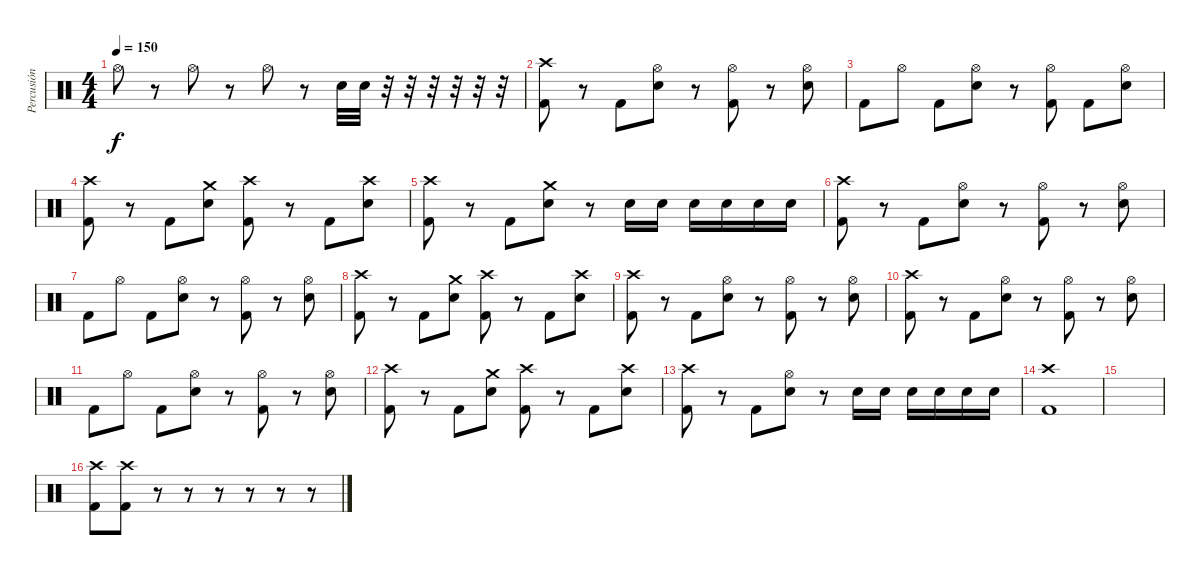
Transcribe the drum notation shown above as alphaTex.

\track ("Percusión" "Percusión") {instrument percussion}
\staff {score}
\articulation defaults
\ts (4 4)
\tempo 150
\clef neutral
\ks c "Hi-Hat (open)".8{dy f}
r.8 "Hi-Hat (open)".8 r.8 "Hi-Hat (open)".8 r.8 "Electric Snare (hit)".32 "Electric Snare (hit)".32 r.32 r.32 r.32 r.32 r.32 r.32 |
("Crash high (hit)" "Kick (hit) 2").8 r.8 "Kick (hit) 2".8 ("Hi-Hat (open)" "Electric Snare (hit)").8 r.8 ("Hi-Hat (open)" "Kick (hit) 2").8 r.8 ("Hi-Hat (open)" "Electric Snare (hit)").8 |
"Kick (hit) 2".8 "Hi-Hat (open)".8 "Kick (hit) 2".8 ("Hi-Hat (open)" "Electric Snare (hit)").8 r.8 ("Hi-Hat (open)" "Kick (hit) 2").8 "Kick (hit) 2".8 ("Hi-Hat (open)" "Electric Snare (hit)").8 |
("Crash high (hit)" "Kick (hit) 2").8 r.8 "Kick (hit) 2".8 ("Crash medium (hit)" "Electric Snare (hit)").8 ("Crash high (hit)" "Kick (hit) 2").8 r.8 "Kick (hit) 2".8 ("Crash high (hit)" "Electric Snare (hit)").8 |
("Crash high (hit)" "Kick (hit) 2").8 r.8 "Kick (hit) 2".8 ("Crash medium (hit)" "Electric Snare (hit)").8 r.8 "Electric Snare (hit)".16 "Electric Snare (hit)".16 "Electric Snare (hit)".16 "Electric Snare (hit)".16 "Electric Snare (hit)".16 "Electric Snare (hit)".16 |
("Crash high (hit)" "Kick (hit) 2").8 r.8 "Kick (hit) 2".8 ("Hi-Hat (open)" "Electric Snare (hit)").8 r.8 ("Hi-Hat (open)" "Kick (hit) 2").8 r.8 ("Hi-Hat (open)" "Electric Snare (hit)").8 |
"Kick (hit) 2".8 "Hi-Hat (open)".8 "Kick (hit) 2".8 ("Hi-Hat (open)" "Electric Snare (hit)").8 r.8 ("Hi-Hat (open)" "Kick (hit) 2").8 r.8 ("Hi-Hat (open)" "Electric Snare (hit)").8 |
("Crash high (hit)" "Kick (hit) 2").8 r.8 "Kick (hit) 2".8 ("Crash medium (hit)" "Electric Snare (hit)").8 ("Crash high (hit)" "Kick (hit) 2").8 r.8 "Kick (hit) 2".8 ("Crash high (hit)" "Electric Snare (hit)").8 |
("Crash high (hit)" "Kick (hit) 2").8 r.8 "Kick (hit) 2".8 ("Hi-Hat (open)" "Electric Snare (hit)").8 r.8 ("Hi-Hat (open)" "Kick (hit) 2").8 r.8 ("Hi-Hat (open)" "Electric Snare (hit)").8 |
("Crash high (hit)" "Kick (hit) 2").8 r.8 "Kick (hit) 2".8 ("Hi-Hat (open)" "Electric Snare (hit)").8 r.8 ("Hi-Hat (open)" "Kick (hit) 2").8 r.8 ("Hi-Hat (open)" "Electric Snare (hit)").8 |
"Kick (hit) 2".8 "Hi-Hat (open)".8 "Kick (hit) 2".8 ("Hi-Hat (open)" "Electric Snare (hit)").8 r.8 ("Hi-Hat (open)" "Kick (hit) 2").8 r.8 ("Hi-Hat (open)" "Electric Snare (hit)").8 |
("Crash high (hit)" "Kick (hit) 2").8 r.8 "Kick (hit) 2".8 ("Crash medium (hit)" "Electric Snare (hit)").8 ("Crash high (hit)" "Kick (hit) 2").8 r.8 "Kick (hit) 2".8 ("Crash high (hit)" "Electric Snare (hit)").8 |
("Crash high (hit)" "Kick (hit) 2").8 r.8 "Kick (hit) 2".8 ("Hi-Hat (open)" "Electric Snare (hit)").8 r.8 "Electric Snare (hit)".16 "Electric Snare (hit)".16 "Electric Snare (hit)".16 "Electric Snare (hit)".16 "Electric Snare (hit)".16 "Electric Snare (hit)".16 |
("Crash high (hit)" "Kick (hit) 2").1 |
|
("Crash high (hit)" "Kick (hit) 2").8 ("Crash high (hit)" "Kick (hit) 2").8 r.8 r.8 r.8 r.8 r.8 r.8
